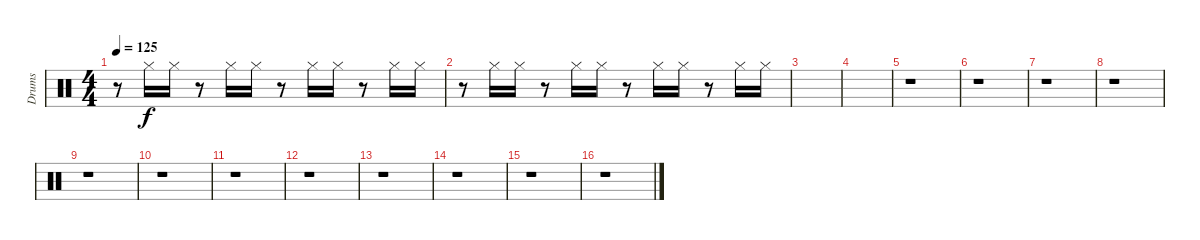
\track ("Drums" "Drums") {instrument percussion}
\staff {score}
\articulation defaults
\ts (4 4)
\tempo 125
\clef neutral
\ks c
r.8{dy f} "Hi-Hat (closed)".16 "Hi-Hat (closed)".16 r.8 "Hi-Hat (closed)".16 "Hi-Hat (closed)".16 r.8 "Hi-Hat (closed)".16 "Hi-Hat (closed)".16 r.8 "Hi-Hat (closed)".16 "Hi-Hat (closed)".16 |
r.8 "Hi-Hat (closed)".16 "Hi-Hat (closed)".16 r.8 "Hi-Hat (closed)".16 "Hi-Hat (closed)".16 r.8 "Hi-Hat (closed)".16 "Hi-Hat (closed)".16 r.8 "Hi-Hat (closed)".16 "Hi-Hat (closed)".16 |
|
|
r.1 |
r.1 |
r.1 |
r.1 |
r.1 |
r.1 |
r.1 |
r.1 |
r.1 |
r.1 |
r.1 |
r.1
